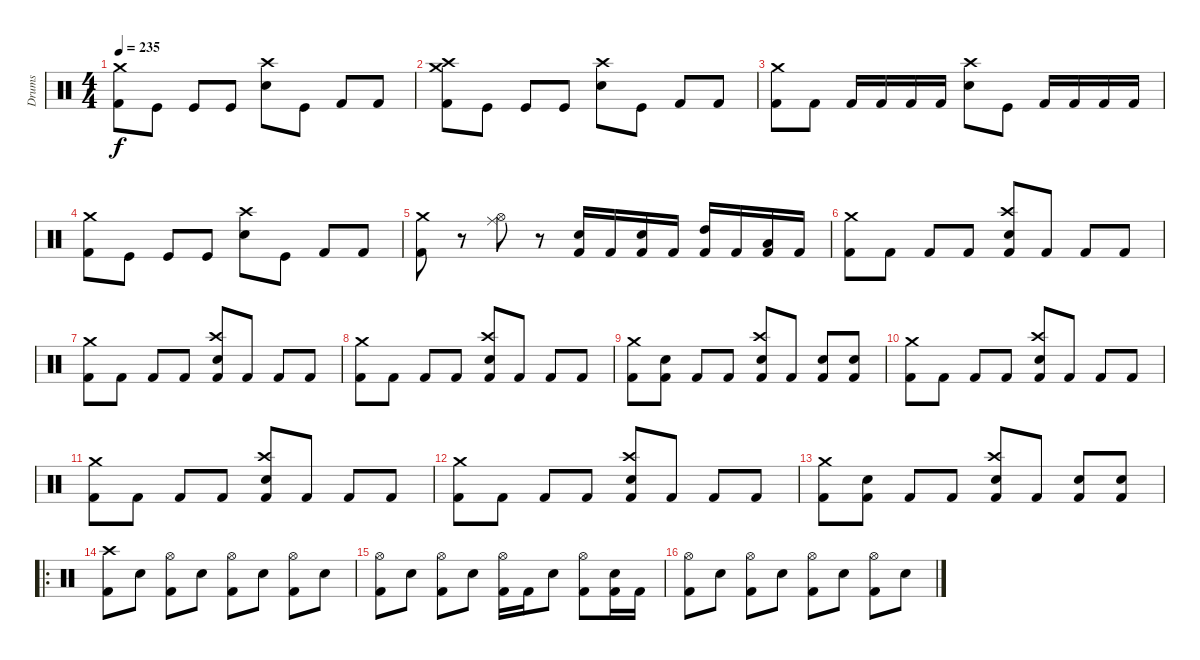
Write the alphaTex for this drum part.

\track ("Drums" "Drums") {instrument percussion}
\staff {score}
\articulation defaults
\ts (4 4)
\tempo 235
\clef neutral
\ks c
("Crash medium (hit)" "Kick (hit) 2").8{dy f} "Kick (hit)".8 "Kick (hit)".8 "Kick (hit)".8 ("Crash high (hit)" "Snare (hit) 2").8 "Kick (hit)".8 "Kick (hit) 2".8 "Kick (hit) 2".8 |
("Crash medium (hit)" "Crash high (hit)" "Kick (hit) 2").8 "Kick (hit)".8 "Kick (hit)".8 "Kick (hit)".8 ("Crash high (hit)" "Snare (hit) 2").8 "Kick (hit)".8 "Kick (hit) 2".8 "Kick (hit) 2".8 |
("Crash medium (hit)" "Kick (hit) 2").8 "Kick (hit) 2".8 "Kick (hit) 2".16 "Kick (hit) 2".16 "Kick (hit) 2".16 "Kick (hit) 2".16 ("Crash high (hit)" "Snare (hit) 2").8 "Kick (hit)".8 "Kick (hit) 2".16 "Kick (hit) 2".16 "Kick (hit) 2".16 "Kick (hit) 2".16 |
("Crash medium (hit)" "Kick (hit) 2").8 "Kick (hit)".8 "Kick (hit)".8 "Kick (hit)".8 ("Crash high (hit)" "Snare (hit) 2").8 "Kick (hit)".8 "Kick (hit) 2".8 "Kick (hit) 2".8 |
("Crash medium (hit)" "Kick (hit) 2").8 r.8 ("Ride (middle)" "Hi-Hat (open)").8 r.8 ("Snare (hit) 2" "Kick (hit) 2").16 "Kick (hit) 2".16 ("Snare (hit) 2" "Kick (hit) 2").16 "Kick (hit) 2".16 ("High Tom (hit)" "Kick (hit) 2").16 "Kick (hit) 2".16 ("Low Tom (hit)" "Kick (hit) 2").16 "Kick (hit) 2".16 |
("Crash medium (hit)" "Kick (hit) 2").8 "Kick (hit) 2".8 "Kick (hit) 2".8 "Kick (hit) 2".8 ("Crash high (hit)" "Snare (hit) 2" "Kick (hit) 2").8 "Kick (hit) 2".8 "Kick (hit) 2".8 "Kick (hit) 2".8 |
("Crash medium (hit)" "Kick (hit) 2").8 "Kick (hit) 2".8 "Kick (hit) 2".8 "Kick (hit) 2".8 ("Crash high (hit)" "Snare (hit) 2" "Kick (hit) 2").8 "Kick (hit) 2".8 "Kick (hit) 2".8 "Kick (hit) 2".8 |
("Crash medium (hit)" "Kick (hit) 2").8 "Kick (hit) 2".8 "Kick (hit) 2".8 "Kick (hit) 2".8 ("Crash high (hit)" "Snare (hit) 2" "Kick (hit) 2").8 "Kick (hit) 2".8 "Kick (hit) 2".8 "Kick (hit) 2".8 |
("Crash medium (hit)" "Kick (hit) 2").8 ("Snare (hit) 2" "Kick (hit) 2").8 "Kick (hit) 2".8 "Kick (hit) 2".8 ("Crash high (hit)" "Snare (hit) 2" "Kick (hit) 2").8 "Kick (hit) 2".8 ("Snare (hit) 2" "Kick (hit) 2").8 ("Snare (hit) 2" "Kick (hit) 2").8 |
("Crash medium (hit)" "Kick (hit) 2").8 "Kick (hit) 2".8 "Kick (hit) 2".8 "Kick (hit) 2".8 ("Crash high (hit)" "Snare (hit) 2" "Kick (hit) 2").8 "Kick (hit) 2".8 "Kick (hit) 2".8 "Kick (hit) 2".8 |
("Crash medium (hit)" "Kick (hit) 2").8 "Kick (hit) 2".8 "Kick (hit) 2".8 "Kick (hit) 2".8 ("Crash high (hit)" "Snare (hit) 2" "Kick (hit) 2").8 "Kick (hit) 2".8 "Kick (hit) 2".8 "Kick (hit) 2".8 |
("Crash medium (hit)" "Kick (hit) 2").8 "Kick (hit) 2".8 "Kick (hit) 2".8 "Kick (hit) 2".8 ("Crash high (hit)" "Snare (hit) 2" "Kick (hit) 2").8 "Kick (hit) 2".8 "Kick (hit) 2".8 "Kick (hit) 2".8 |
("Crash medium (hit)" "Kick (hit) 2").8 ("Snare (hit) 2" "Kick (hit) 2").8 "Kick (hit) 2".8 "Kick (hit) 2".8 ("Crash high (hit)" "Snare (hit) 2" "Kick (hit) 2").8 "Kick (hit) 2".8 ("Snare (hit) 2" "Kick (hit) 2").8 ("Snare (hit) 2" "Kick (hit) 2").8 |
\ro
("Crash high (hit)" "Kick (hit) 2").8 "Snare (hit) 2".8 ("Hi-Hat (open)" "Kick (hit) 2").8 "Snare (hit) 2".8 ("Hi-Hat (open)" "Kick (hit) 2").8 "Snare (hit) 2".8 ("Hi-Hat (open)" "Kick (hit) 2").8 "Snare (hit) 2".8 |
("Hi-Hat (open)" "Kick (hit) 2").8 "Snare (hit) 2".8 ("Hi-Hat (open)" "Kick (hit) 2").8 "Snare (hit) 2".8 ("Hi-Hat (open)" "Kick (hit) 2").16 "Kick (hit) 2".16 "Snare (hit) 2".8 ("Hi-Hat (open)" "Kick (hit) 2").8 ("Snare (hit) 2" "Kick (hit) 2").16 "Kick (hit) 2".16 |
("Hi-Hat (open)" "Kick (hit) 2").8 "Snare (hit) 2".8 ("Hi-Hat (open)" "Kick (hit) 2").8 "Snare (hit) 2".8 ("Hi-Hat (open)" "Kick (hit) 2").8 "Snare (hit) 2".8 ("Hi-Hat (open)" "Kick (hit) 2").8 "Snare (hit) 2".8
